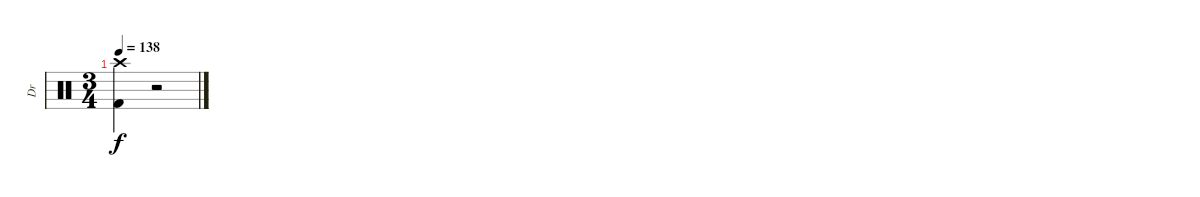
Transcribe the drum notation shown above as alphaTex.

\track ("Dr" "Dr") {instrument percussion}
\staff {score}
\articulation defaults
\ts (3 4)
\tempo 138
\clef neutral
\ks c
("Crash high (hit)" "Kick (hit) 2").4{dy f} r.2
